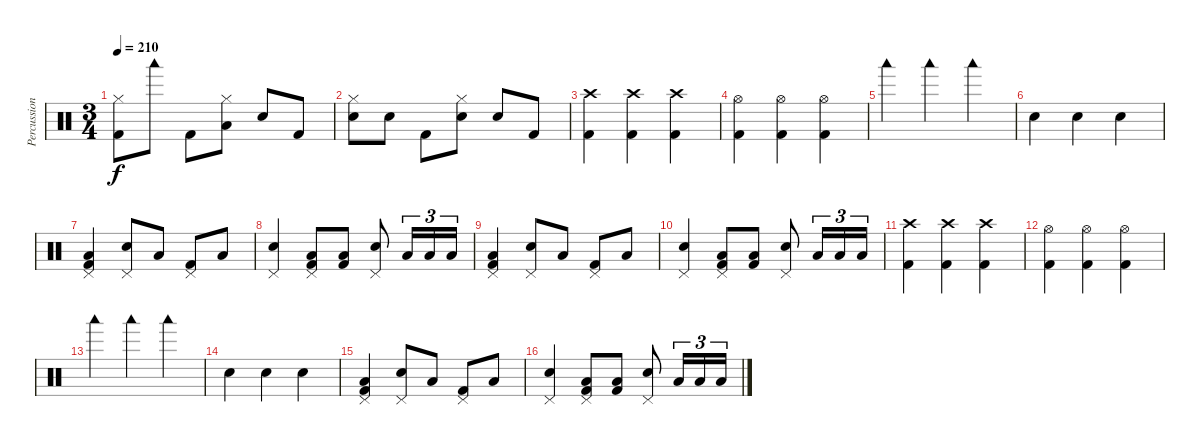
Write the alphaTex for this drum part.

\track ("Percussion" "Percussion") {instrument percussion}
\staff
\articulation defaults
\ts (3 4)
\tempo 210
\clef neutral
\ks c
("Hi-Hat (closed)" "Kick (hit) 2").8{dy f} "Woodblock low (hit)".8 "Kick (hit) 2".8 ("Hi-Hat (closed)" "Low Tom (hit)").8 "Electric Snare (hit)".8 "Kick (hit) 2".8 |
("Hi-Hat (closed)" "Electric Snare (hit)").8 "Electric Snare (hit)".8 "Kick (hit) 2".8 ("Hi-Hat (closed)" "Electric Snare (hit)").8 "Electric Snare (hit)".8 "Kick (hit) 2".8 |
("Crash high (hit)" "Kick (hit) 2").4 ("Crash high (hit)" "Kick (hit) 2").4 ("Crash high (hit)" "Kick (hit) 2").4 |
("Hi-Hat (open)" "Kick (hit) 2").4 ("Hi-Hat (open)" "Kick (hit) 2").4 ("Hi-Hat (open)" "Kick (hit) 2").4 |
"Woodblock low (hit)".4 "Woodblock low (hit)".4 "Woodblock low (hit)".4 |
"Electric Snare (hit)".4 "Electric Snare (hit)".4 "Electric Snare (hit)".4 |
("Pedal Hi-Hat (hit)" "Low Floor Tom (hit)" "Kick (hit) 2").4 ("Pedal Hi-Hat (hit)" "Electric Snare (hit)").8 "Low Floor Tom (hit)".8 ("Pedal Hi-Hat (hit)" "Kick (hit) 2").8 "Low Floor Tom (hit)".8 |
("Pedal Hi-Hat (hit)" "Electric Snare (hit)").4 ("Pedal Hi-Hat (hit)" "Low Floor Tom (hit)" "Kick (hit) 2").8 ("Low Floor Tom (hit)" "Kick (hit) 2").8 ("Pedal Hi-Hat (hit)" "Electric Snare (hit)").8 "Low Floor Tom (hit)".16{tu (3 2)} "Low Floor Tom (hit)".16{tu (3 2)} "Low Floor Tom (hit)".16{tu (3 2)} |
("Pedal Hi-Hat (hit)" "Low Floor Tom (hit)" "Kick (hit) 2").4 ("Pedal Hi-Hat (hit)" "Electric Snare (hit)").8 "Low Floor Tom (hit)".8 ("Pedal Hi-Hat (hit)" "Kick (hit) 2").8 "Low Floor Tom (hit)".8 |
("Pedal Hi-Hat (hit)" "Electric Snare (hit)").4 ("Pedal Hi-Hat (hit)" "Low Floor Tom (hit)" "Kick (hit) 2").8 ("Low Floor Tom (hit)" "Kick (hit) 2").8 ("Pedal Hi-Hat (hit)" "Electric Snare (hit)").8 "Low Floor Tom (hit)".16{tu (3 2)} "Low Floor Tom (hit)".16{tu (3 2)} "Low Floor Tom (hit)".16{tu (3 2)} |
("Crash high (hit)" "Kick (hit) 2").4 ("Crash high (hit)" "Kick (hit) 2").4 ("Crash high (hit)" "Kick (hit) 2").4 |
("Hi-Hat (open)" "Kick (hit) 2").4 ("Hi-Hat (open)" "Kick (hit) 2").4 ("Hi-Hat (open)" "Kick (hit) 2").4 |
"Woodblock low (hit)".4 "Woodblock low (hit)".4 "Woodblock low (hit)".4 |
"Electric Snare (hit)".4 "Electric Snare (hit)".4 "Electric Snare (hit)".4 |
("Pedal Hi-Hat (hit)" "Low Floor Tom (hit)" "Kick (hit) 2").4 ("Pedal Hi-Hat (hit)" "Electric Snare (hit)").8 "Low Floor Tom (hit)".8 ("Pedal Hi-Hat (hit)" "Kick (hit) 2").8 "Low Floor Tom (hit)".8 |
("Pedal Hi-Hat (hit)" "Electric Snare (hit)").4 ("Pedal Hi-Hat (hit)" "Low Floor Tom (hit)" "Kick (hit) 2").8 ("Low Floor Tom (hit)" "Kick (hit) 2").8 ("Pedal Hi-Hat (hit)" "Electric Snare (hit)").8 "Low Floor Tom (hit)".16{tu (3 2)} "Low Floor Tom (hit)".16{tu (3 2)} "Low Floor Tom (hit)".16{tu (3 2)}
